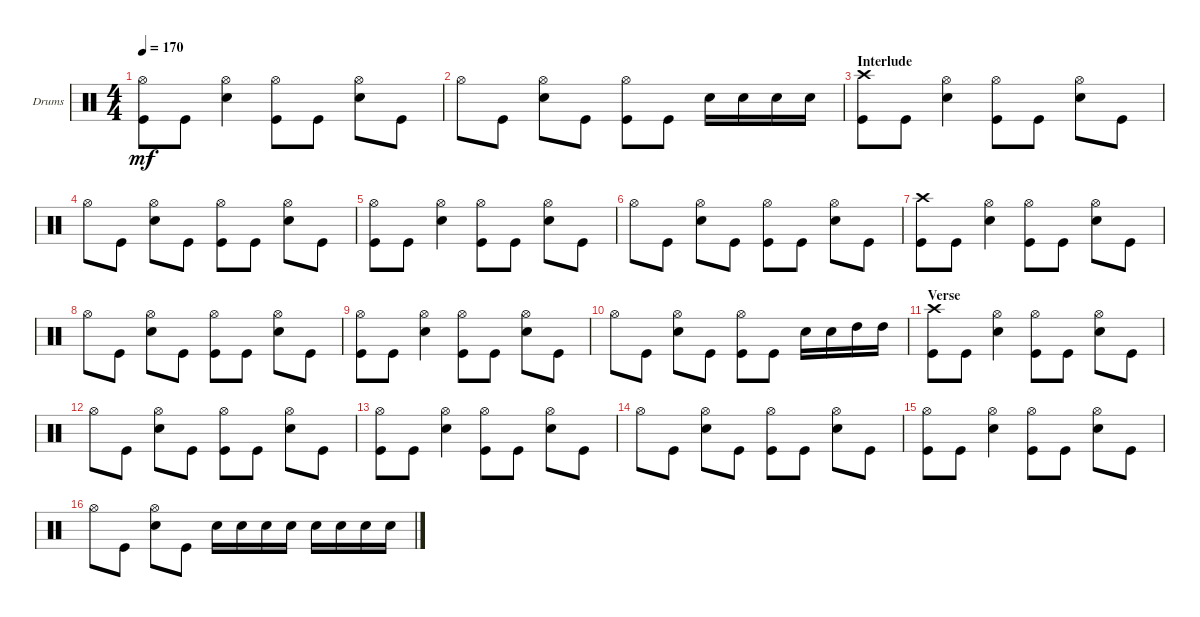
\defaultSystemsLayout 4
\bracketExtendMode groupsimilarinstruments
\firstSystemTrackNameOrientation horizontal
\otherSystemsTrackNameOrientation horizontal
\track ("Drumkit" "Drums") {instrument percussion}
\staff {score}
\articulation defaults
\ts (4 4)
\tempo 170
\clef neutral
\ks c
("Hi-Hat (open)" "Kick (hit)").8{dy mf} "Kick (hit)".8 ("Snare (hit) 2" "Hi-Hat (open)").4 ("Kick (hit)" "Hi-Hat (open)").8 "Kick (hit)".8 ("Snare (hit) 2" "Hi-Hat (open)").8 "Kick (hit)".8 |
"Hi-Hat (open)".8 "Kick (hit)".8 ("Snare (hit) 2" "Hi-Hat (open)").8 "Kick (hit)".8 ("Hi-Hat (open)" "Kick (hit)").8 "Kick (hit)".8 "Snare (hit) 2".16 "Snare (hit) 2".16 "Snare (hit) 2".16 "Snare (hit) 2".16 |
\section ("" "Interlude")
("Crash high (hit)" "Kick (hit)").8 "Kick (hit)".8 ("Hi-Hat (open)" "Snare (hit) 2").4 ("Kick (hit)" "Hi-Hat (open)").8 "Kick (hit)".8 ("Hi-Hat (open)" "Snare (hit) 2").8 "Kick (hit)".8 |
"Hi-Hat (open)".8 "Kick (hit)".8 ("Snare (hit) 2" "Hi-Hat (open)").8 "Kick (hit)".8 ("Hi-Hat (open)" "Kick (hit)").8 "Kick (hit)".8 ("Snare (hit) 2" "Hi-Hat (open)").8 "Kick (hit)".8 |
("Kick (hit)" "Hi-Hat (open)").8 "Kick (hit)".8 ("Hi-Hat (open)" "Snare (hit) 2").4 ("Kick (hit)" "Hi-Hat (open)").8 "Kick (hit)".8 ("Hi-Hat (open)" "Snare (hit) 2").8 "Kick (hit)".8 |
"Hi-Hat (open)".8 "Kick (hit)".8 ("Snare (hit) 2" "Hi-Hat (open)").8 "Kick (hit)".8 ("Hi-Hat (open)" "Kick (hit)").8 "Kick (hit)".8 ("Snare (hit) 2" "Hi-Hat (open)").8 "Kick (hit)".8 |
("Crash high (hit)" "Kick (hit)").8 "Kick (hit)".8 ("Hi-Hat (open)" "Snare (hit) 2").4 ("Kick (hit)" "Hi-Hat (open)").8 "Kick (hit)".8 ("Hi-Hat (open)" "Snare (hit) 2").8 "Kick (hit)".8 |
"Hi-Hat (open)".8 "Kick (hit)".8 ("Snare (hit) 2" "Hi-Hat (open)").8 "Kick (hit)".8 ("Hi-Hat (open)" "Kick (hit)").8 "Kick (hit)".8 ("Snare (hit) 2" "Hi-Hat (open)").8 "Kick (hit)".8 |
("Kick (hit)" "Hi-Hat (open)").8 "Kick (hit)".8 ("Hi-Hat (open)" "Snare (hit) 2").4 ("Kick (hit)" "Hi-Hat (open)").8 "Kick (hit)".8 ("Hi-Hat (open)" "Snare (hit) 2").8 "Kick (hit)".8 |
"Hi-Hat (open)".8 "Kick (hit)".8 ("Snare (hit) 2" "Hi-Hat (open)").8 "Kick (hit)".8 ("Hi-Hat (open)" "Kick (hit)").8 "Kick (hit)".8 "Snare (hit) 2".16 "Snare (hit) 2".16 "High Tom (hit)".16 "High Tom (hit)".16 |
\section ("" "Verse")
("Crash high (hit)" "Kick (hit)").8 "Kick (hit)".8 ("Snare (hit) 2" "Hi-Hat (open)").4 ("Kick (hit)" "Hi-Hat (open)").8 "Kick (hit)".8 ("Snare (hit) 2" "Hi-Hat (open)").8 "Kick (hit)".8 |
"Hi-Hat (open)".8 "Kick (hit)".8 ("Hi-Hat (open)" "Snare (hit) 2").8 "Kick (hit)".8 ("Hi-Hat (open)" "Kick (hit)").8 "Kick (hit)".8 ("Hi-Hat (open)" "Snare (hit) 2").8 "Kick (hit)".8 |
("Kick (hit)" "Hi-Hat (open)").8 "Kick (hit)".8 ("Snare (hit) 2" "Hi-Hat (open)").4 ("Kick (hit)" "Hi-Hat (open)").8 "Kick (hit)".8 ("Snare (hit) 2" "Hi-Hat (open)").8 "Kick (hit)".8 |
"Hi-Hat (open)".8 "Kick (hit)".8 ("Hi-Hat (open)" "Snare (hit) 2").8 "Kick (hit)".8 ("Hi-Hat (open)" "Kick (hit)").8 "Kick (hit)".8 ("Hi-Hat (open)" "Snare (hit) 2").8 "Kick (hit)".8 |
("Kick (hit)" "Hi-Hat (open)").8 "Kick (hit)".8 ("Snare (hit) 2" "Hi-Hat (open)").4 ("Kick (hit)" "Hi-Hat (open)").8 "Kick (hit)".8 ("Snare (hit) 2" "Hi-Hat (open)").8 "Kick (hit)".8 |
"Hi-Hat (open)".8 "Kick (hit)".8 ("Hi-Hat (open)" "Snare (hit) 2").8 "Kick (hit)".8 "Snare (hit) 2".16 "Snare (hit) 2".16 "Snare (hit) 2".16 "Snare (hit) 2".16 "Snare (hit) 2".16 "Snare (hit) 2".16 "Snare (hit) 2".16 "Snare (hit) 2".16
